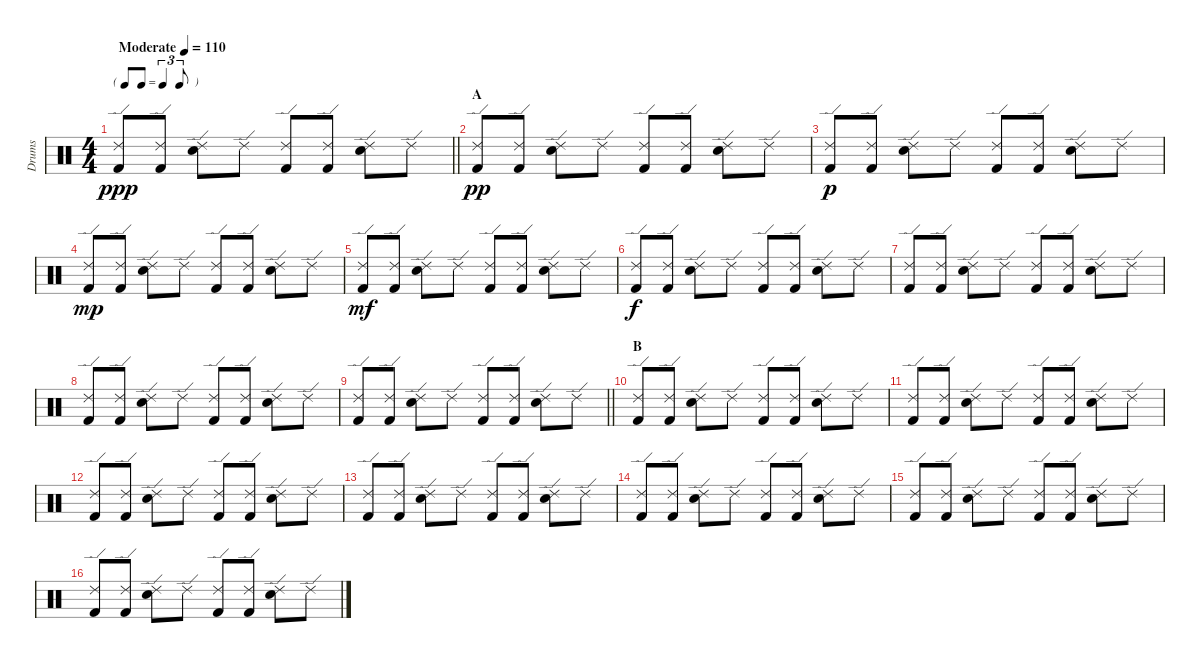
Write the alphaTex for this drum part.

\track ("Drums" "Drums") {instrument percussion}
\staff {score}
\articulation defaults
\ts (4 4)
\tf triplet8th
\tempo (110 "Moderate")
\clef neutral
\barLineRight lightlight
\ks c
("Ride (edge) 2" "Kick (hit) 2").8{dy ppp} ("Ride (edge) 2" "Kick (hit) 2").8 ("Ride (edge) 2" "Snare (hit) 2").8 "Ride (edge) 2".8 ("Ride (edge) 2" "Kick (hit) 2").8 ("Ride (edge) 2" "Kick (hit) 2").8 ("Ride (edge) 2" "Snare (hit) 2").8 "Ride (edge) 2".8 |
\section ("" "A")
("Ride (edge) 2" "Kick (hit) 2").8{dy pp} ("Ride (edge) 2" "Kick (hit) 2").8 ("Ride (edge) 2" "Snare (hit) 2").8 "Ride (edge) 2".8 ("Ride (edge) 2" "Kick (hit) 2").8 ("Ride (edge) 2" "Kick (hit) 2").8 ("Ride (edge) 2" "Snare (hit) 2").8 "Ride (edge) 2".8 |
("Ride (edge) 2" "Kick (hit) 2").8{dy p} ("Ride (edge) 2" "Kick (hit) 2").8 ("Ride (edge) 2" "Snare (hit) 2").8 "Ride (edge) 2".8 ("Ride (edge) 2" "Kick (hit) 2").8 ("Ride (edge) 2" "Kick (hit) 2").8 ("Ride (edge) 2" "Snare (hit) 2").8 "Ride (edge) 2".8 |
("Ride (edge) 2" "Kick (hit) 2").8{dy mp} ("Ride (edge) 2" "Kick (hit) 2").8 ("Ride (edge) 2" "Snare (hit) 2").8 "Ride (edge) 2".8 ("Ride (edge) 2" "Kick (hit) 2").8 ("Ride (edge) 2" "Kick (hit) 2").8 ("Ride (edge) 2" "Snare (hit) 2").8 "Ride (edge) 2".8 |
("Ride (edge) 2" "Kick (hit) 2").8{dy mf} ("Ride (edge) 2" "Kick (hit) 2").8 ("Ride (edge) 2" "Snare (hit) 2").8 "Ride (edge) 2".8 ("Ride (edge) 2" "Kick (hit) 2").8 ("Ride (edge) 2" "Kick (hit) 2").8 ("Ride (edge) 2" "Snare (hit) 2").8 "Ride (edge) 2".8 |
("Ride (edge) 2" "Kick (hit) 2").8{dy f} ("Ride (edge) 2" "Kick (hit) 2").8 ("Ride (edge) 2" "Snare (hit) 2").8 "Ride (edge) 2".8 ("Ride (edge) 2" "Kick (hit) 2").8 ("Ride (edge) 2" "Kick (hit) 2").8 ("Ride (edge) 2" "Snare (hit) 2").8 "Ride (edge) 2".8 |
("Ride (edge) 2" "Kick (hit) 2").8 ("Ride (edge) 2" "Kick (hit) 2").8 ("Ride (edge) 2" "Snare (hit) 2").8 "Ride (edge) 2".8 ("Ride (edge) 2" "Kick (hit) 2").8 ("Ride (edge) 2" "Kick (hit) 2").8 ("Ride (edge) 2" "Snare (hit) 2").8 "Ride (edge) 2".8 |
("Ride (edge) 2" "Kick (hit) 2").8 ("Ride (edge) 2" "Kick (hit) 2").8 ("Ride (edge) 2" "Snare (hit) 2").8 "Ride (edge) 2".8 ("Ride (edge) 2" "Kick (hit) 2").8 ("Ride (edge) 2" "Kick (hit) 2").8 ("Ride (edge) 2" "Snare (hit) 2").8 "Ride (edge) 2".8 |
\barLineRight lightlight
("Ride (edge) 2" "Kick (hit) 2").8 ("Ride (edge) 2" "Kick (hit) 2").8 ("Ride (edge) 2" "Snare (hit) 2").8 "Ride (edge) 2".8 ("Ride (edge) 2" "Kick (hit) 2").8 ("Ride (edge) 2" "Kick (hit) 2").8 ("Ride (edge) 2" "Snare (hit) 2").8 "Ride (edge) 2".8 |
\section ("" "B")
("Ride (edge) 2" "Kick (hit) 2").8 ("Ride (edge) 2" "Kick (hit) 2").8 ("Ride (edge) 2" "Snare (hit) 2").8 "Ride (edge) 2".8 ("Ride (edge) 2" "Kick (hit) 2").8 ("Ride (edge) 2" "Kick (hit) 2").8 ("Ride (edge) 2" "Snare (hit) 2").8 "Ride (edge) 2".8 |
("Ride (edge) 2" "Kick (hit) 2").8 ("Ride (edge) 2" "Kick (hit) 2").8 ("Ride (edge) 2" "Snare (hit) 2").8 "Ride (edge) 2".8 ("Ride (edge) 2" "Kick (hit) 2").8 ("Ride (edge) 2" "Kick (hit) 2").8 ("Ride (edge) 2" "Snare (hit) 2").8 "Ride (edge) 2".8 |
("Ride (edge) 2" "Kick (hit) 2").8 ("Ride (edge) 2" "Kick (hit) 2").8 ("Ride (edge) 2" "Snare (hit) 2").8 "Ride (edge) 2".8 ("Ride (edge) 2" "Kick (hit) 2").8 ("Ride (edge) 2" "Kick (hit) 2").8 ("Ride (edge) 2" "Snare (hit) 2").8 "Ride (edge) 2".8 |
("Ride (edge) 2" "Kick (hit) 2").8 ("Ride (edge) 2" "Kick (hit) 2").8 ("Ride (edge) 2" "Snare (hit) 2").8 "Ride (edge) 2".8 ("Ride (edge) 2" "Kick (hit) 2").8 ("Ride (edge) 2" "Kick (hit) 2").8 ("Ride (edge) 2" "Snare (hit) 2").8 "Ride (edge) 2".8 |
("Ride (edge) 2" "Kick (hit) 2").8 ("Ride (edge) 2" "Kick (hit) 2").8 ("Ride (edge) 2" "Snare (hit) 2").8 "Ride (edge) 2".8 ("Ride (edge) 2" "Kick (hit) 2").8 ("Ride (edge) 2" "Kick (hit) 2").8 ("Ride (edge) 2" "Snare (hit) 2").8 "Ride (edge) 2".8 |
("Ride (edge) 2" "Kick (hit) 2").8 ("Ride (edge) 2" "Kick (hit) 2").8 ("Ride (edge) 2" "Snare (hit) 2").8 "Ride (edge) 2".8 ("Ride (edge) 2" "Kick (hit) 2").8 ("Ride (edge) 2" "Kick (hit) 2").8 ("Ride (edge) 2" "Snare (hit) 2").8 "Ride (edge) 2".8 |
("Ride (edge) 2" "Kick (hit) 2").8 ("Ride (edge) 2" "Kick (hit) 2").8 ("Ride (edge) 2" "Snare (hit) 2").8 "Ride (edge) 2".8 ("Ride (edge) 2" "Kick (hit) 2").8 ("Ride (edge) 2" "Kick (hit) 2").8 ("Ride (edge) 2" "Snare (hit) 2").8 "Ride (edge) 2".8
